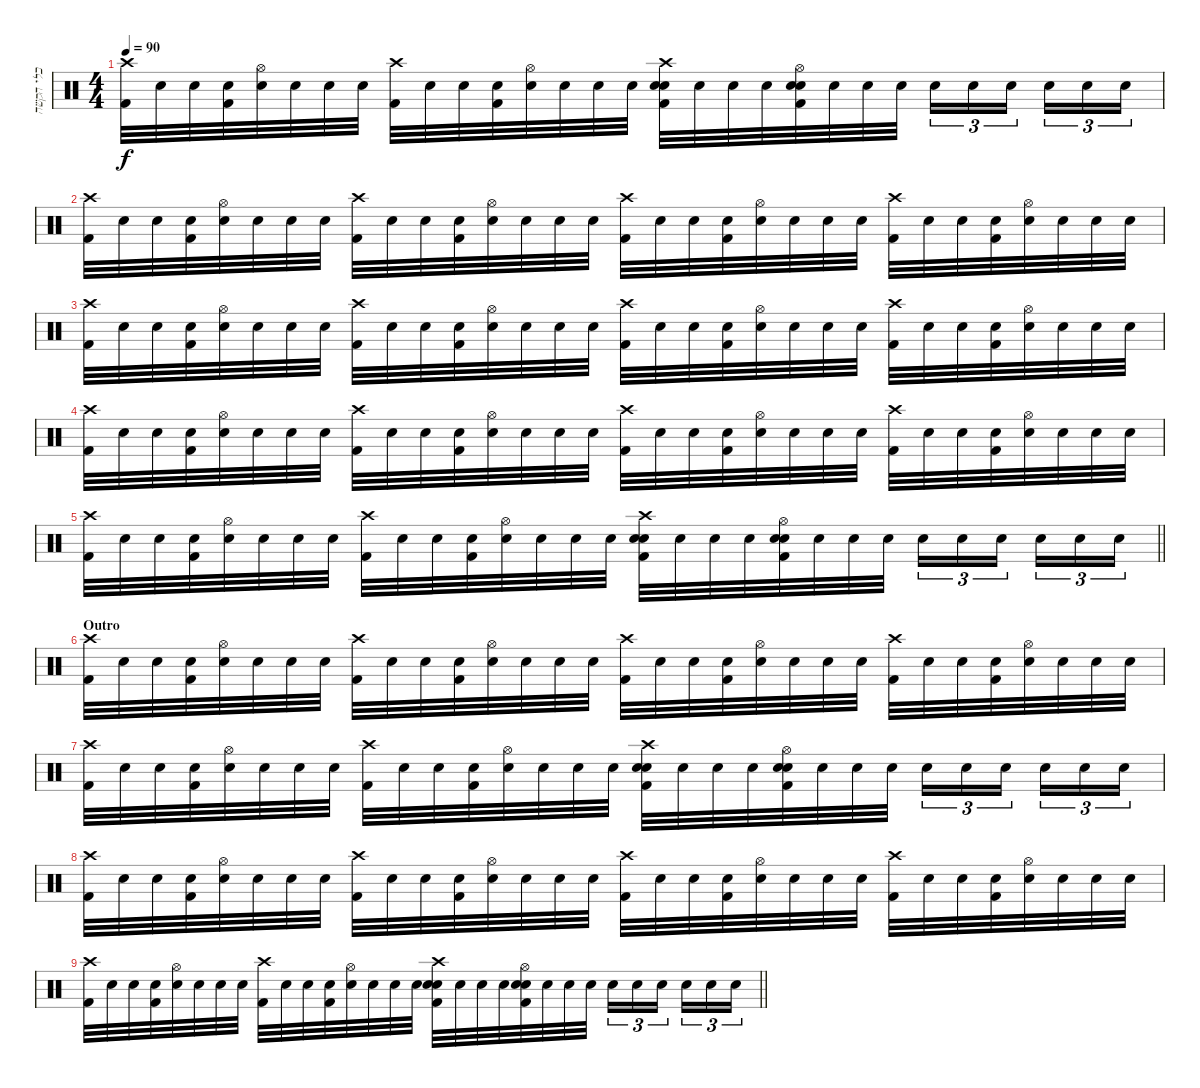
\track ("כלי הקשה" "כלי הקשה") {instrument percussion bank 127}
\staff {score}
\articulation defaults
\ts (4 4)
\tempo 90
\clef neutral
\ks c
("Crash high (hit)" "Kick (hit) 2").32{dy f} "Snare (hit)".32 "Snare (hit)".32 ("Snare (hit)" "Kick (hit) 2").32 ("Hi-Hat (open)" "Snare (hit) 2").32 "Snare (hit)".32 "Snare (hit)".32 "Snare (hit)".32 ("Crash high (hit)" "Kick (hit) 2").32 "Snare (hit)".32 "Snare (hit)".32 ("Snare (hit)" "Kick (hit) 2").32 ("Hi-Hat (open)" "Snare (hit) 2").32 "Snare (hit)".32 "Snare (hit)".32 "Snare (hit)".32 ("Crash high (hit)" "Snare (hit) 2" "Snare (hit) 2" "Kick (hit) 2").32 "Snare (hit)".32 "Snare (hit)".32 "Snare (hit)".32 ("Hi-Hat (open)" "Snare (hit) 2" "Snare (hit) 2" "Kick (hit) 2").32 "Snare (hit)".32 "Snare (hit)".32 "Snare (hit)".32 "Snare (hit) 2".16{tu (3 2)} "Snare (hit) 2".16{tu (3 2)} "Snare (hit) 2".16{tu (3 2) beam splitsecondary} "Snare (hit) 2".16{tu (3 2)} "Snare (hit) 2".16{tu (3 2)} "Snare (hit) 2".16{tu (3 2)} |
("Crash high (hit)" "Kick (hit) 2").32 "Snare (hit)".32 "Snare (hit)".32 ("Snare (hit)" "Kick (hit) 2").32 ("Hi-Hat (open)" "Snare (hit) 2").32 "Snare (hit)".32 "Snare (hit)".32 "Snare (hit)".32 ("Crash high (hit)" "Kick (hit) 2").32 "Snare (hit)".32 "Snare (hit)".32 ("Snare (hit)" "Kick (hit) 2").32 ("Hi-Hat (open)" "Snare (hit) 2").32 "Snare (hit)".32 "Snare (hit)".32 "Snare (hit)".32 ("Crash high (hit)" "Kick (hit) 2").32 "Snare (hit)".32 "Snare (hit)".32 ("Snare (hit)" "Kick (hit) 2").32 ("Hi-Hat (open)" "Snare (hit) 2").32 "Snare (hit)".32 "Snare (hit)".32 "Snare (hit)".32 ("Crash high (hit)" "Kick (hit) 2").32 "Snare (hit)".32 "Snare (hit)".32 ("Snare (hit)" "Kick (hit) 2").32 ("Hi-Hat (open)" "Snare (hit) 2").32 "Snare (hit)".32 "Snare (hit)".32 "Snare (hit)".32 |
("Crash high (hit)" "Kick (hit) 2").32 "Snare (hit)".32 "Snare (hit)".32 ("Snare (hit)" "Kick (hit) 2").32 ("Hi-Hat (open)" "Snare (hit) 2").32 "Snare (hit)".32 "Snare (hit)".32 "Snare (hit)".32 ("Crash high (hit)" "Kick (hit) 2").32 "Snare (hit)".32 "Snare (hit)".32 ("Snare (hit)" "Kick (hit) 2").32 ("Hi-Hat (open)" "Snare (hit) 2").32 "Snare (hit)".32 "Snare (hit)".32 "Snare (hit)".32 ("Crash high (hit)" "Kick (hit) 2").32 "Snare (hit)".32 "Snare (hit)".32 ("Snare (hit)" "Kick (hit) 2").32 ("Hi-Hat (open)" "Snare (hit) 2").32 "Snare (hit)".32 "Snare (hit)".32 "Snare (hit)".32 ("Crash high (hit)" "Kick (hit) 2").32 "Snare (hit)".32 "Snare (hit)".32 ("Snare (hit)" "Kick (hit) 2").32 ("Hi-Hat (open)" "Snare (hit) 2").32 "Snare (hit)".32 "Snare (hit)".32 "Snare (hit)".32 |
("Crash high (hit)" "Kick (hit) 2").32 "Snare (hit)".32 "Snare (hit)".32 ("Snare (hit)" "Kick (hit) 2").32 ("Hi-Hat (open)" "Snare (hit) 2").32 "Snare (hit)".32 "Snare (hit)".32 "Snare (hit)".32 ("Crash high (hit)" "Kick (hit) 2").32 "Snare (hit)".32 "Snare (hit)".32 ("Snare (hit)" "Kick (hit) 2").32 ("Hi-Hat (open)" "Snare (hit) 2").32 "Snare (hit)".32 "Snare (hit)".32 "Snare (hit)".32 ("Crash high (hit)" "Kick (hit) 2").32 "Snare (hit)".32 "Snare (hit)".32 ("Snare (hit)" "Kick (hit) 2").32 ("Hi-Hat (open)" "Snare (hit) 2").32 "Snare (hit)".32 "Snare (hit)".32 "Snare (hit)".32 ("Crash high (hit)" "Kick (hit) 2").32 "Snare (hit)".32 "Snare (hit)".32 ("Snare (hit)" "Kick (hit) 2").32 ("Hi-Hat (open)" "Snare (hit) 2").32 "Snare (hit)".32 "Snare (hit)".32 "Snare (hit)".32 |
\barLineRight lightlight
("Crash high (hit)" "Kick (hit) 2").32 "Snare (hit)".32 "Snare (hit)".32 ("Snare (hit)" "Kick (hit) 2").32 ("Hi-Hat (open)" "Snare (hit) 2").32 "Snare (hit)".32 "Snare (hit)".32 "Snare (hit)".32 ("Crash high (hit)" "Kick (hit) 2").32 "Snare (hit)".32 "Snare (hit)".32 ("Snare (hit)" "Kick (hit) 2").32 ("Hi-Hat (open)" "Snare (hit) 2").32 "Snare (hit)".32 "Snare (hit)".32 "Snare (hit)".32 ("Crash high (hit)" "Snare (hit) 2" "Snare (hit) 2" "Kick (hit) 2").32 "Snare (hit)".32 "Snare (hit)".32 "Snare (hit)".32 ("Hi-Hat (open)" "Snare (hit) 2" "Snare (hit) 2" "Kick (hit) 2").32 "Snare (hit)".32 "Snare (hit)".32 "Snare (hit)".32 "Snare (hit) 2".16{tu (3 2)} "Snare (hit) 2".16{tu (3 2)} "Snare (hit) 2".16{tu (3 2) beam splitsecondary} "Snare (hit) 2".16{tu (3 2)} "Snare (hit) 2".16{tu (3 2)} "Snare (hit) 2".16{tu (3 2)} |
\section ("" "Outro")
("Crash high (hit)" "Kick (hit) 2").32 "Snare (hit)".32 "Snare (hit)".32 ("Snare (hit)" "Kick (hit) 2").32 ("Hi-Hat (open)" "Snare (hit) 2").32 "Snare (hit)".32 "Snare (hit)".32 "Snare (hit)".32 ("Crash high (hit)" "Kick (hit) 2").32 "Snare (hit)".32 "Snare (hit)".32 ("Snare (hit)" "Kick (hit) 2").32 ("Hi-Hat (open)" "Snare (hit) 2").32 "Snare (hit)".32 "Snare (hit)".32 "Snare (hit)".32 ("Crash high (hit)" "Kick (hit) 2").32 "Snare (hit)".32 "Snare (hit)".32 ("Snare (hit)" "Kick (hit) 2").32 ("Hi-Hat (open)" "Snare (hit) 2").32 "Snare (hit)".32 "Snare (hit)".32 "Snare (hit)".32 ("Crash high (hit)" "Kick (hit) 2").32 "Snare (hit)".32 "Snare (hit)".32 ("Snare (hit)" "Kick (hit) 2").32 ("Hi-Hat (open)" "Snare (hit) 2").32 "Snare (hit)".32 "Snare (hit)".32 "Snare (hit)".32 |
("Crash high (hit)" "Kick (hit) 2").32 "Snare (hit)".32 "Snare (hit)".32 ("Snare (hit)" "Kick (hit) 2").32 ("Hi-Hat (open)" "Snare (hit) 2").32 "Snare (hit)".32 "Snare (hit)".32 "Snare (hit)".32 ("Crash high (hit)" "Kick (hit) 2").32 "Snare (hit)".32 "Snare (hit)".32 ("Snare (hit)" "Kick (hit) 2").32 ("Hi-Hat (open)" "Snare (hit) 2").32 "Snare (hit)".32 "Snare (hit)".32 "Snare (hit)".32 ("Crash high (hit)" "Snare (hit) 2" "Snare (hit) 2" "Kick (hit) 2").32 "Snare (hit)".32 "Snare (hit)".32 "Snare (hit)".32 ("Hi-Hat (open)" "Snare (hit) 2" "Snare (hit) 2" "Kick (hit) 2").32 "Snare (hit)".32 "Snare (hit)".32 "Snare (hit)".32 "Snare (hit) 2".16{tu (3 2)} "Snare (hit) 2".16{tu (3 2)} "Snare (hit) 2".16{tu (3 2) beam splitsecondary} "Snare (hit) 2".16{tu (3 2)} "Snare (hit) 2".16{tu (3 2)} "Snare (hit) 2".16{tu (3 2)} |
("Crash high (hit)" "Kick (hit) 2").32 "Snare (hit)".32 "Snare (hit)".32 ("Snare (hit)" "Kick (hit) 2").32 ("Hi-Hat (open)" "Snare (hit) 2").32 "Snare (hit)".32 "Snare (hit)".32 "Snare (hit)".32 ("Crash high (hit)" "Kick (hit) 2").32 "Snare (hit)".32 "Snare (hit)".32 ("Snare (hit)" "Kick (hit) 2").32 ("Hi-Hat (open)" "Snare (hit) 2").32 "Snare (hit)".32 "Snare (hit)".32 "Snare (hit)".32 ("Crash high (hit)" "Kick (hit) 2").32 "Snare (hit)".32 "Snare (hit)".32 ("Snare (hit)" "Kick (hit) 2").32 ("Hi-Hat (open)" "Snare (hit) 2").32 "Snare (hit)".32 "Snare (hit)".32 "Snare (hit)".32 ("Crash high (hit)" "Kick (hit) 2").32 "Snare (hit)".32 "Snare (hit)".32 ("Snare (hit)" "Kick (hit) 2").32 ("Hi-Hat (open)" "Snare (hit) 2").32 "Snare (hit)".32 "Snare (hit)".32 "Snare (hit)".32 |
\barLineRight lightlight
("Crash high (hit)" "Kick (hit) 2").32 "Snare (hit)".32 "Snare (hit)".32 ("Snare (hit)" "Kick (hit) 2").32 ("Hi-Hat (open)" "Snare (hit) 2").32 "Snare (hit)".32 "Snare (hit)".32 "Snare (hit)".32 ("Crash high (hit)" "Kick (hit) 2").32 "Snare (hit)".32 "Snare (hit)".32 ("Snare (hit)" "Kick (hit) 2").32 ("Hi-Hat (open)" "Snare (hit) 2").32 "Snare (hit)".32 "Snare (hit)".32 "Snare (hit)".32 ("Crash high (hit)" "Snare (hit) 2" "Snare (hit) 2" "Kick (hit) 2").32 "Snare (hit)".32 "Snare (hit)".32 "Snare (hit)".32 ("Hi-Hat (open)" "Snare (hit) 2" "Snare (hit) 2" "Kick (hit) 2").32 "Snare (hit)".32 "Snare (hit)".32 "Snare (hit)".32 "Snare (hit) 2".16{tu (3 2)} "Snare (hit) 2".16{tu (3 2)} "Snare (hit) 2".16{tu (3 2) beam splitsecondary} "Snare (hit) 2".16{tu (3 2)} "Snare (hit) 2".16{tu (3 2)} "Snare (hit) 2".16{tu (3 2)}
